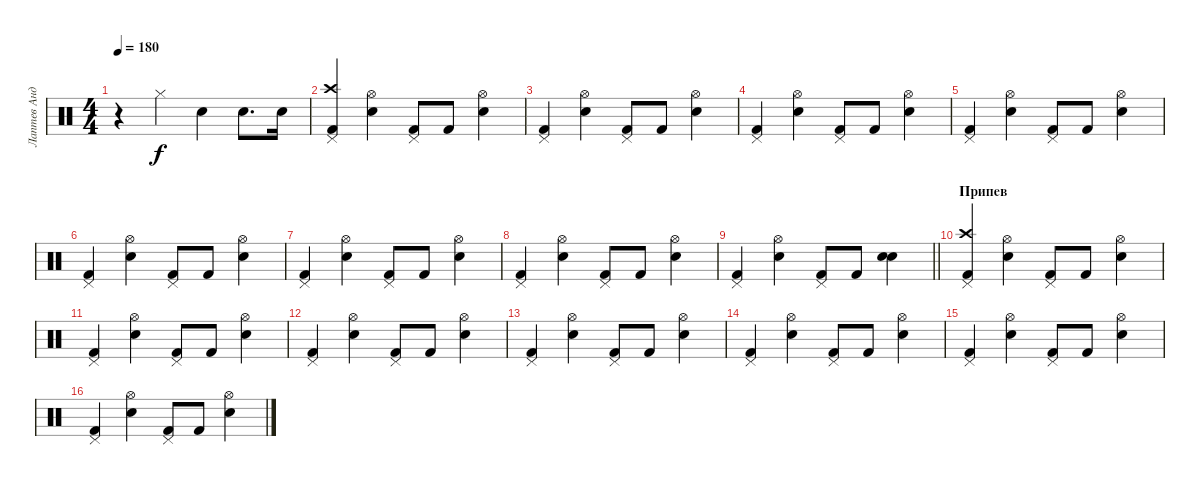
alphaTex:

\track ("Лаптев Андрей" "Лаптев Анд") {instrument percussion}
\staff {score}
\articulation defaults
\ts (4 4)
\tempo 180
\clef neutral
\ks c
r.4{dy f} "Hi-Hat (closed)".4 "Snare (hit) 2".4 "Snare (hit) 2".8{d} "Snare (hit) 2".16 |
("Kick (hit) 2" "Crash high (hit)" "Pedal Hi-Hat (hit)").4 ("Snare (hit) 2" "Hi-Hat (open)").4 ("Kick (hit) 2" "Pedal Hi-Hat (hit)").8 "Kick (hit) 2".8 ("Snare (hit) 2" "Hi-Hat (open)").4 |
("Kick (hit) 2" "Pedal Hi-Hat (hit)").4 ("Snare (hit) 2" "Hi-Hat (open)").4 ("Kick (hit) 2" "Pedal Hi-Hat (hit)").8 "Kick (hit) 2".8 ("Snare (hit) 2" "Hi-Hat (open)").4 |
("Kick (hit) 2" "Pedal Hi-Hat (hit)").4 ("Snare (hit) 2" "Hi-Hat (open)").4 ("Kick (hit) 2" "Pedal Hi-Hat (hit)").8 "Kick (hit) 2".8 ("Snare (hit) 2" "Hi-Hat (open)").4 |
("Kick (hit) 2" "Pedal Hi-Hat (hit)").4 ("Snare (hit) 2" "Hi-Hat (open)").4 ("Kick (hit) 2" "Pedal Hi-Hat (hit)").8 "Kick (hit) 2".8 ("Snare (hit) 2" "Hi-Hat (open)").4 |
("Kick (hit) 2" "Pedal Hi-Hat (hit)").4 ("Snare (hit) 2" "Hi-Hat (open)").4 ("Kick (hit) 2" "Pedal Hi-Hat (hit)").8 "Kick (hit) 2".8 ("Snare (hit) 2" "Hi-Hat (open)").4 |
("Kick (hit) 2" "Pedal Hi-Hat (hit)").4 ("Snare (hit) 2" "Hi-Hat (open)").4 ("Kick (hit) 2" "Pedal Hi-Hat (hit)").8 "Kick (hit) 2".8 ("Snare (hit) 2" "Hi-Hat (open)").4 |
("Kick (hit) 2" "Pedal Hi-Hat (hit)").4 ("Snare (hit) 2" "Hi-Hat (open)").4 ("Kick (hit) 2" "Pedal Hi-Hat (hit)").8 "Kick (hit) 2".8 ("Snare (hit) 2" "Hi-Hat (open)").4 |
\barLineRight lightlight
("Kick (hit) 2" "Pedal Hi-Hat (hit)").4 ("Snare (hit) 2" "Hi-Hat (open)").4 ("Kick (hit) 2" "Pedal Hi-Hat (hit)").8 "Kick (hit) 2".8 ("Snare (hit) 2" "Electric Snare (hit)").4 |
\section ("" "Припев")
("Kick (hit) 2" "Crash high (hit)" "Pedal Hi-Hat (hit)").4 ("Snare (hit) 2" "Hi-Hat (open)").4 ("Kick (hit) 2" "Pedal Hi-Hat (hit)").8 "Kick (hit) 2".8 ("Snare (hit) 2" "Hi-Hat (open)").4 |
("Kick (hit) 2" "Pedal Hi-Hat (hit)").4 ("Snare (hit) 2" "Hi-Hat (open)").4 ("Kick (hit) 2" "Pedal Hi-Hat (hit)").8 "Kick (hit) 2".8 ("Snare (hit) 2" "Hi-Hat (open)").4 |
("Kick (hit) 2" "Pedal Hi-Hat (hit)").4 ("Snare (hit) 2" "Hi-Hat (open)").4 ("Kick (hit) 2" "Pedal Hi-Hat (hit)").8 "Kick (hit) 2".8 ("Snare (hit) 2" "Hi-Hat (open)").4 |
("Kick (hit) 2" "Pedal Hi-Hat (hit)").4 ("Snare (hit) 2" "Hi-Hat (open)").4 ("Kick (hit) 2" "Pedal Hi-Hat (hit)").8 "Kick (hit) 2".8 ("Snare (hit) 2" "Hi-Hat (open)").4 |
("Kick (hit) 2" "Pedal Hi-Hat (hit)").4 ("Snare (hit) 2" "Hi-Hat (open)").4 ("Kick (hit) 2" "Pedal Hi-Hat (hit)").8 "Kick (hit) 2".8 ("Snare (hit) 2" "Hi-Hat (open)").4 |
("Kick (hit) 2" "Pedal Hi-Hat (hit)").4 ("Snare (hit) 2" "Hi-Hat (open)").4 ("Kick (hit) 2" "Pedal Hi-Hat (hit)").8 "Kick (hit) 2".8 ("Snare (hit) 2" "Hi-Hat (open)").4 |
("Kick (hit) 2" "Pedal Hi-Hat (hit)").4 ("Snare (hit) 2" "Hi-Hat (open)").4 ("Kick (hit) 2" "Pedal Hi-Hat (hit)").8 "Kick (hit) 2".8 ("Snare (hit) 2" "Hi-Hat (open)").4
